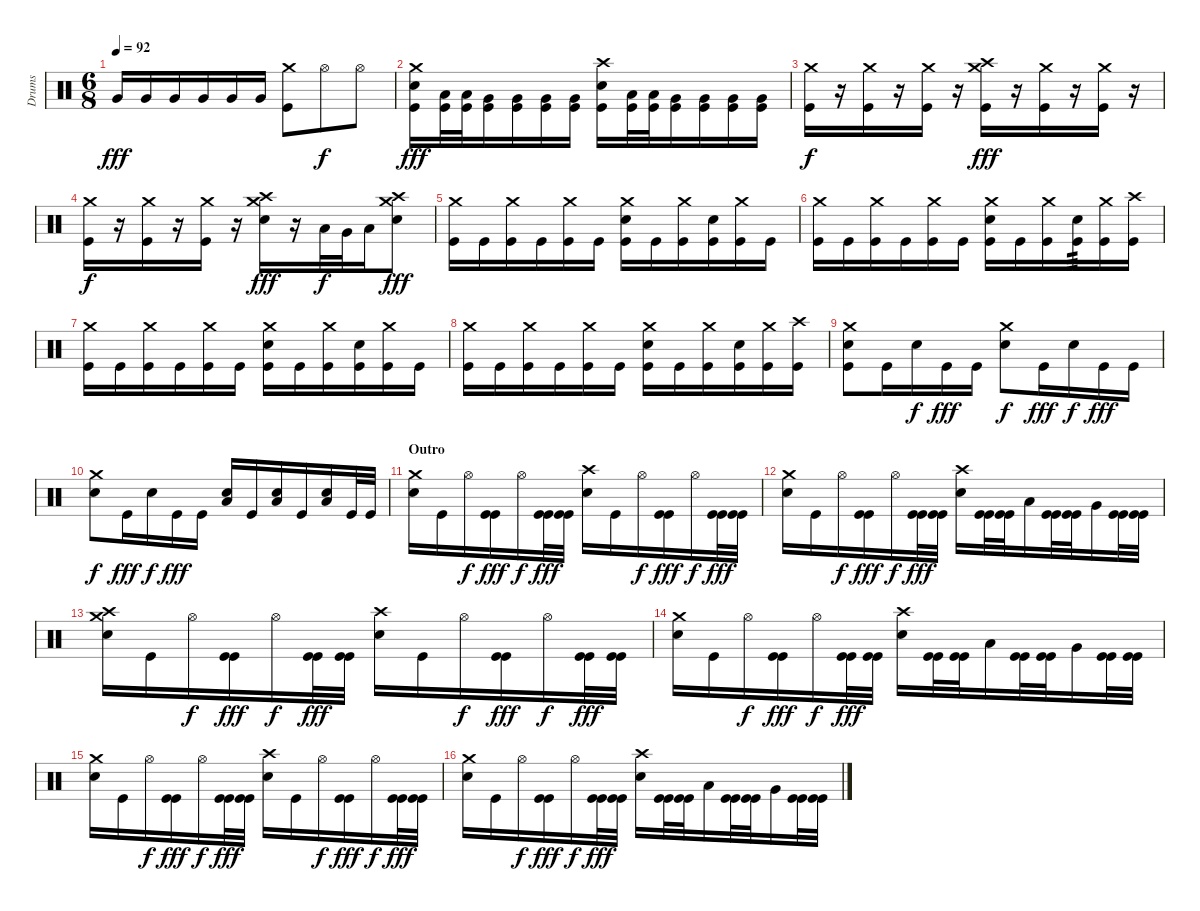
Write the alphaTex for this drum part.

\track ("Drums" "Drums") {instrument percussion}
\staff {score}
\articulation defaults
\ts (6 8)
\tempo 92
\clef neutral
\ks c "Very Low Tom (hit)".16{dy fff} "Very Low Tom (hit)".16 "Very Low Tom (hit)".16 "Very Low Tom (hit)".16 "Very Low Tom (hit)".16 "Very Low Tom (hit)".16
("Crash medium (hit)" "Kick (hit)").8 "Hi-Hat (open)".8{dy f} "Hi-Hat (open)".8 |
("Crash medium (hit)" "Snare (hit) 2" "Kick (hit)").16{dy fff} ("Low Tom (hit)" "Kick (hit)").32 ("Low Tom (hit)" "Kick (hit)").32 ("Very Low Tom (hit)" "Kick (hit)").16 ("Very Low Tom (hit)" "Kick (hit)").16 ("Very Low Tom (hit)" "Kick (hit)").16 ("Very Low Tom (hit)" "Kick (hit)").16 ("Crash high (hit)" "Snare (hit) 2" "Kick (hit)").16 ("Low Tom (hit)" "Kick (hit)").32 ("Low Tom (hit)" "Kick (hit)").32 ("Very Low Tom (hit)" "Kick (hit)").16 ("Very Low Tom (hit)" "Kick (hit)").16 ("Very Low Tom (hit)" "Kick (hit)").16 ("Very Low Tom (hit)" "Kick (hit)").16 |
("Crash medium (hit)" "Kick (hit)").16{dy f} r.16 ("Crash medium (hit)" "Kick (hit)").16 r.16 ("Crash medium (hit)" "Kick (hit)").16 r.16 ("Crash medium (hit)" "Crash high (hit)" "Kick (hit)").16{dy fff} r.16 ("Crash medium (hit)" "Kick (hit)").16 r.16 ("Crash medium (hit)" "Kick (hit)").16 r.16 |
("Crash medium (hit)" "Kick (hit)").16{dy f} r.16 ("Crash medium (hit)" "Kick (hit)").16 r.16 ("Crash medium (hit)" "Kick (hit)").16 r.16 ("Crash medium (hit)" "Crash high (hit)" "Snare (hit) 2").16{dy fff} r.16 "Low Tom (hit)".32{dy f} "Very Low Tom (hit)".32 "Low Floor Tom (hit)".16 ("Crash medium (hit)" "Crash high (hit)" "Snare (hit) 2").8{dy fff} |
("Crash medium (hit)" "Kick (hit)").16 "Kick (hit)".16 ("Crash medium (hit)" "Kick (hit)").16 "Kick (hit)".16 ("Crash medium (hit)" "Kick (hit)").16 "Kick (hit)".16 ("Crash medium (hit)" "Snare (hit) 2" "Kick (hit)").16 "Kick (hit)".16 ("Crash medium (hit)" "Kick (hit)").16 ("Snare (hit) 2" "Kick (hit)").16 ("Crash medium (hit)" "Kick (hit)").16 "Kick (hit)".16 |
("Crash medium (hit)" "Kick (hit)").16 "Kick (hit)".16 ("Crash medium (hit)" "Kick (hit)").16 "Kick (hit)".16 ("Crash medium (hit)" "Kick (hit)").16 "Kick (hit)".16 ("Crash medium (hit)" "Snare (hit) 2" "Kick (hit)").16 "Kick (hit)".16 ("Crash medium (hit)" "Kick (hit)").16 ("Snare (hit) 2" "Kick (hit)").16{tp 3} ("Crash medium (hit)" "Kick (hit)").16 ("Crash high (hit)" "Kick (hit)").16 |
("Crash medium (hit)" "Kick (hit)").16 "Kick (hit)".16 ("Crash medium (hit)" "Kick (hit)").16 "Kick (hit)".16 ("Crash medium (hit)" "Kick (hit)").16 "Kick (hit)".16 ("Crash medium (hit)" "Snare (hit) 2" "Kick (hit)").16 "Kick (hit)".16 ("Crash medium (hit)" "Kick (hit)").16 ("Snare (hit) 2" "Kick (hit)").16 ("Crash medium (hit)" "Kick (hit)").16 "Kick (hit)".16 |
("Crash medium (hit)" "Kick (hit)").16 "Kick (hit)".16 ("Crash medium (hit)" "Kick (hit)").16 "Kick (hit)".16 ("Crash medium (hit)" "Kick (hit)").16 "Kick (hit)".16 ("Crash medium (hit)" "Snare (hit) 2" "Kick (hit)").16 "Kick (hit)".16 ("Crash medium (hit)" "Kick (hit)").16 ("Snare (hit) 2" "Kick (hit)").16 ("Crash medium (hit)" "Kick (hit)").16 ("Crash high (hit)" "Kick (hit)").16 |
("Crash medium (hit)" "Snare (hit) 2" "Kick (hit)").8 "Kick (hit)".16 "Snare (hit) 2".16{dy f} "Kick (hit)".16{dy fff} "Kick (hit)".16 ("Crash medium (hit)" "Snare (hit) 2").8{dy f} "Kick (hit)".16{dy fff} "Snare (hit) 2".16{dy f} "Kick (hit)".16{dy fff} "Kick (hit)".16 |
("Crash medium (hit)" "Snare (hit) 2").8{dy f} "Kick (hit)".16{dy fff} "Snare (hit) 2".16{dy f} "Kick (hit)".16{dy fff} "Kick (hit)".16 ("Snare (hit) 2" "Low Tom (hit)").16 "Kick (hit)".16 ("Snare (hit) 2" "Low Tom (hit)").16 "Kick (hit)".16 ("Snare (hit) 2" "Low Tom (hit)").16 "Kick (hit)".32 "Kick (hit)".32 |
\section ("" "Outro")
("Crash medium (hit)" "Snare (hit) 2").16 "Kick (hit)".16 "Hi-Hat (open)".16{dy f} ("Kick (hit)" "Kick (hit)").16{dy fff} "Hi-Hat (open)".16{dy f} ("Kick (hit)" "Kick (hit)").32{dy fff} ("Kick (hit)" "Kick (hit)").32 ("Crash high (hit)" "Snare (hit) 2").16 "Kick (hit)".16 "Hi-Hat (open)".16{dy f} ("Kick (hit)" "Kick (hit)").16{dy fff} "Hi-Hat (open)".16{dy f} ("Kick (hit)" "Kick (hit)").32{dy fff} ("Kick (hit)" "Kick (hit)").32 |
("Crash medium (hit)" "Snare (hit) 2").16 "Kick (hit)".16 "Hi-Hat (open)".16{dy f} ("Kick (hit)" "Kick (hit)").16{dy fff} "Hi-Hat (open)".16{dy f} ("Kick (hit)" "Kick (hit)").32{dy fff} ("Kick (hit)" "Kick (hit)").32 ("Crash high (hit)" "Snare (hit) 2").16 ("Kick (hit)" "Kick (hit)").32 ("Kick (hit)" "Kick (hit)").32 "Low Tom (hit)".16 ("Kick (hit)" "Kick (hit)").32 ("Kick (hit)" "Kick (hit)").32 "Very Low Tom (hit)".16 ("Kick (hit)" "Kick (hit)").32 ("Kick (hit)" "Kick (hit)").32 |
("Crash medium (hit)" "Crash high (hit)" "Snare (hit) 2").16 "Kick (hit)".16 "Hi-Hat (open)".16{dy f} ("Kick (hit)" "Kick (hit)").16{dy fff} "Hi-Hat (open)".16{dy f} ("Kick (hit)" "Kick (hit)").32{dy fff} ("Kick (hit)" "Kick (hit)").32 ("Crash high (hit)" "Snare (hit) 2").16 "Kick (hit)".16 "Hi-Hat (open)".16{dy f} ("Kick (hit)" "Kick (hit)").16{dy fff} "Hi-Hat (open)".16{dy f} ("Kick (hit)" "Kick (hit)").32{dy fff} ("Kick (hit)" "Kick (hit)").32 |
("Crash medium (hit)" "Snare (hit) 2").16 "Kick (hit)".16 "Hi-Hat (open)".16{dy f} ("Kick (hit)" "Kick (hit)").16{dy fff} "Hi-Hat (open)".16{dy f} ("Kick (hit)" "Kick (hit)").32{dy fff} ("Kick (hit)" "Kick (hit)").32 ("Crash high (hit)" "Snare (hit) 2").16 ("Kick (hit)" "Kick (hit)").32 ("Kick (hit)" "Kick (hit)").32 "Low Tom (hit)".16 ("Kick (hit)" "Kick (hit)").32 ("Kick (hit)" "Kick (hit)").32 "Very Low Tom (hit)".16 ("Kick (hit)" "Kick (hit)").32 ("Kick (hit)" "Kick (hit)").32 |
("Crash medium (hit)" "Snare (hit) 2").16 "Kick (hit)".16 "Hi-Hat (open)".16{dy f} ("Kick (hit)" "Kick (hit)").16{dy fff} "Hi-Hat (open)".16{dy f} ("Kick (hit)" "Kick (hit)").32{dy fff} ("Kick (hit)" "Kick (hit)").32 ("Crash high (hit)" "Snare (hit) 2").16 "Kick (hit)".16 "Hi-Hat (open)".16{dy f} ("Kick (hit)" "Kick (hit)").16{dy fff} "Hi-Hat (open)".16{dy f} ("Kick (hit)" "Kick (hit)").32{dy fff} ("Kick (hit)" "Kick (hit)").32 |
("Crash medium (hit)" "Snare (hit) 2").16 "Kick (hit)".16 "Hi-Hat (open)".16{dy f} ("Kick (hit)" "Kick (hit)").16{dy fff} "Hi-Hat (open)".16{dy f} ("Kick (hit)" "Kick (hit)").32{dy fff} ("Kick (hit)" "Kick (hit)").32 ("Crash high (hit)" "Snare (hit) 2").16 ("Kick (hit)" "Kick (hit)").32 ("Kick (hit)" "Kick (hit)").32 "Low Tom (hit)".16 ("Kick (hit)" "Kick (hit)").32 ("Kick (hit)" "Kick (hit)").32 "Very Low Tom (hit)".16 ("Kick (hit)" "Kick (hit)").32 ("Kick (hit)" "Kick (hit)").32
